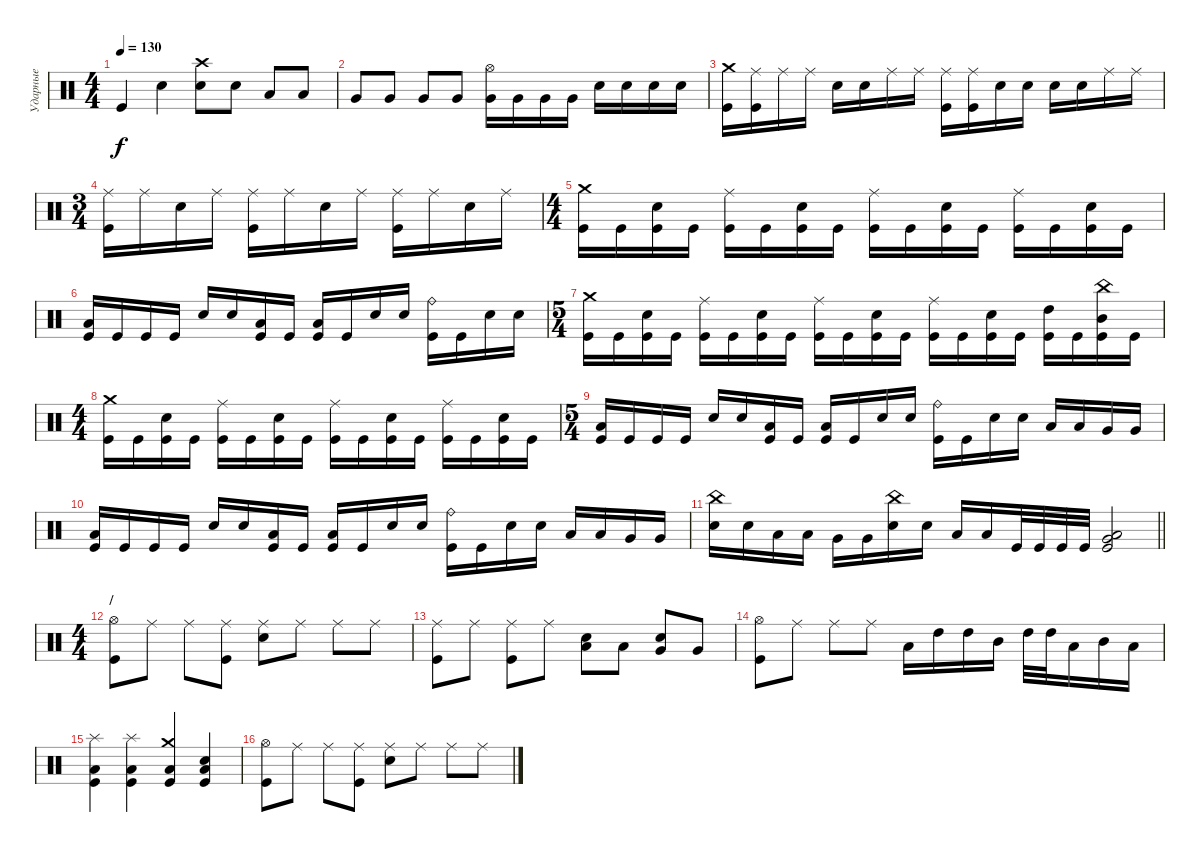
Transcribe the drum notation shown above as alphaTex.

\track ("Ударные" "Ударные") {instrument percussion}
\staff {score}
\articulation defaults
\ts (4 4)
\tempo 130
\clef neutral
\ks c "Kick (hit)".4{dy f} "Electric Snare (hit)".4
("Crash high (hit)" "Electric Snare (hit)").8 "Electric Snare (hit)".8 "Low Tom (hit)".8 "Low Tom (hit)".8 |
"Very Low Tom (hit)".8 "Very Low Tom (hit)".8 "Very Low Tom (hit)".8 "Very Low Tom (hit)".8 ("Hi-Hat (open)" "Very Low Tom (hit)").16 "Very Low Tom (hit)".16 "Very Low Tom (hit)".16 "Very Low Tom (hit)".16 "Electric Snare (hit)".16 "Electric Snare (hit)".16 "Electric Snare (hit)".16 "Electric Snare (hit)".16 |
("Crash medium (hit)" "Kick (hit)").16 ("Ride (middle)" "Kick (hit)").16 "Ride (middle)".16 "Ride (middle)".16 "Electric Snare (hit)".16 "Electric Snare (hit)".16 "Ride (middle)".16 "Ride (middle)".16 ("Ride (middle)" "Kick (hit)").16 ("Ride (middle)" "Kick (hit)").16 "Electric Snare (hit)".16 "Electric Snare (hit)".16 "Electric Snare (hit)".16 "Electric Snare (hit)".16 "Ride (middle)".16 "Ride (middle)".16 |
\ts (3 4)
("Ride (middle)" "Kick (hit)").16 "Ride (middle)".16 "Electric Snare (hit)".16 "Ride (middle)".16 ("Ride (middle)" "Kick (hit)").16 "Ride (middle)".16 "Electric Snare (hit)".16 "Ride (middle)".16 ("Ride (middle)" "Kick (hit)").16 "Ride (middle)".16 "Electric Snare (hit)".16 "Ride (middle)".16 |
\ts (4 4)
("Crash medium (hit)" "Kick (hit)").16 "Kick (hit)".16 ("Electric Snare (hit)" "Kick (hit)").16 "Kick (hit)".16 ("Ride (middle)" "Kick (hit)").16 "Kick (hit)".16 ("Electric Snare (hit)" "Kick (hit)").16 "Kick (hit)".16 ("Ride (middle)" "Kick (hit)").16 "Kick (hit)".16 ("Electric Snare (hit)" "Kick (hit)").16 "Kick (hit)".16 ("Ride (middle)" "Kick (hit)").16 "Kick (hit)".16 ("Electric Snare (hit)" "Kick (hit)").16 "Kick (hit)".16 |
("Low Floor Tom (hit)" "Kick (hit)").16 "Kick (hit)".16 "Kick (hit)".16 "Kick (hit)".16 "Electric Snare (hit)".16 "Electric Snare (hit)".16 ("Low Floor Tom (hit)" "Kick (hit)").16 "Kick (hit)".16 ("Low Floor Tom (hit)" "Kick (hit)").16 "Kick (hit)".16 "Electric Snare (hit)".16 "Electric Snare (hit)".16 ("Ride (bell)" "Kick (hit)").16 "Kick (hit)".16 "Electric Snare (hit)".16 "Electric Snare (hit)".16 |
\ts (5 4)
("Crash medium (hit)" "Kick (hit)").16 "Kick (hit)".16 ("Electric Snare (hit)" "Kick (hit)").16 "Kick (hit)".16 ("Ride (middle)" "Kick (hit)").16 "Kick (hit)".16 ("Electric Snare (hit)" "Kick (hit)").16 "Kick (hit)".16 ("Ride (middle)" "Kick (hit)").16 "Kick (hit)".16 ("Electric Snare (hit)" "Kick (hit)").16 "Kick (hit)".16 ("Ride (middle)" "Kick (hit)").16 "Kick (hit)".16 ("Electric Snare (hit)" "Kick (hit)").16 "Kick (hit)".16 ("High Tom (hit)" "Kick (hit)").16 "Kick (hit)".16 ("Mid Tom (hit)" "China (hit)" "Kick (hit)").16 "Kick (hit)".16 |
\ts (4 4)
("Crash medium (hit)" "Kick (hit)").16 "Kick (hit)".16 ("Electric Snare (hit)" "Kick (hit)").16 "Kick (hit)".16 ("Ride (middle)" "Kick (hit)").16 "Kick (hit)".16 ("Electric Snare (hit)" "Kick (hit)").16 "Kick (hit)".16 ("Ride (middle)" "Kick (hit)").16 "Kick (hit)".16 ("Electric Snare (hit)" "Kick (hit)").16 "Kick (hit)".16 ("Ride (middle)" "Kick (hit)").16 "Kick (hit)".16 ("Electric Snare (hit)" "Kick (hit)").16 "Kick (hit)".16 |
\ts (5 4)
("Low Floor Tom (hit)" "Kick (hit)").16 "Kick (hit)".16 "Kick (hit)".16 "Kick (hit)".16 "Electric Snare (hit)".16 "Electric Snare (hit)".16 ("Low Floor Tom (hit)" "Kick (hit)").16 "Kick (hit)".16 ("Low Floor Tom (hit)" "Kick (hit)").16 "Kick (hit)".16 "Electric Snare (hit)".16 "Electric Snare (hit)".16 ("Ride (bell)" "Kick (hit)").16 "Kick (hit)".16 "Electric Snare (hit)".16 "Electric Snare (hit)".16 "Low Tom (hit)".16 "Low Tom (hit)".16 "Very Low Tom (hit)".16 "Very Low Tom (hit)".16 |
("Low Floor Tom (hit)" "Kick (hit)").16 "Kick (hit)".16 "Kick (hit)".16 "Kick (hit)".16 "Electric Snare (hit)".16 "Electric Snare (hit)".16 ("Low Floor Tom (hit)" "Kick (hit)").16 "Kick (hit)".16 ("Low Floor Tom (hit)" "Kick (hit)").16 "Kick (hit)".16 "Electric Snare (hit)".16 "Electric Snare (hit)".16 ("Ride (bell)" "Kick (hit)").16 "Kick (hit)".16 "Electric Snare (hit)".16 "Electric Snare (hit)".16 "Low Tom (hit)".16 "Low Tom (hit)".16 "Very Low Tom (hit)".16 "Very Low Tom (hit)".16 |
\barLineRight lightlight
("China (hit)" "Electric Snare (hit)").16 "Electric Snare (hit)".16 "Low Tom (hit)".16 "Low Tom (hit)".16 "Very Low Tom (hit)".16 "Very Low Tom (hit)".16 ("China (hit)" "Electric Snare (hit)").16 "Electric Snare (hit)".16 "Low Tom (hit)".16 "Low Tom (hit)".16 "Kick (hit)".32 "Kick (hit)".32 "Kick (hit)".32 "Kick (hit)".32 ("Very Low Tom (hit)" "Low Floor Tom (hit)" "Kick (hit)").2 |
\ts (4 4)
\section ("" "/")
("Kick (hit)" "Hi-Hat (open)").8 "Ride (middle)".8 "Ride (middle)".8 ("Kick (hit)" "Ride (middle)").8 ("Electric Snare (hit)" "Ride (middle)").8 "Ride (middle)".8 "Ride (middle)".8 "Ride (middle)".8 |
("Kick (hit)" "Ride (middle)").8 "Ride (middle)".8 ("Kick (hit)" "Ride (middle)").8 "Ride (middle)".8 ("Low Tom (hit)" "Electric Snare (hit)").8 "Low Tom (hit)".8 ("Very Low Tom (hit)" "Electric Snare (hit)").8 "Very Low Tom (hit)".8 |
("Kick (hit)" "Hi-Hat (open)").8 "Ride (middle)".8 "Ride (middle)".8 "Ride (middle)".8 "Low Tom (hit)".16 "High Tom (hit)".16 "High Tom (hit)".16 "Mid Tom (hit)".16 "High Tom (hit)".32 "High Tom (hit)".32 "Low Tom (hit)".16 "Mid Tom (hit)".16 "Low Tom (hit)".16 |
("Splash (hit)" "Kick (hit)" "Low Floor Tom (hit)").4 ("Splash (hit)" "Kick (hit)" "Low Floor Tom (hit)").4 ("Crash medium (hit)" "Kick (hit)" "Low Floor Tom (hit)").4 ("Electric Snare (hit)" "Kick (hit)" "Low Floor Tom (hit)").4 |
("Kick (hit)" "Hi-Hat (open)").8 "Ride (middle)".8 "Ride (middle)".8 ("Kick (hit)" "Ride (middle)").8 ("Electric Snare (hit)" "Ride (middle)").8 "Ride (middle)".8 "Ride (middle)".8 "Ride (middle)".8
